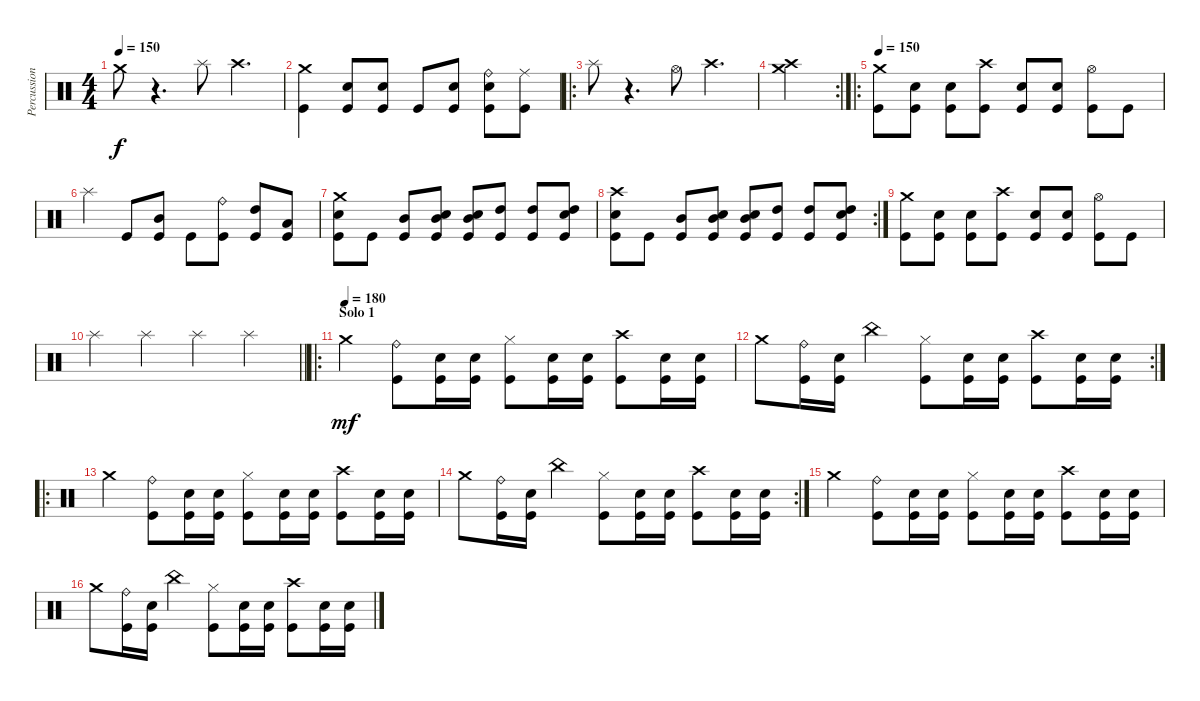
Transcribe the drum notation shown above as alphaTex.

\track ("Percussion" "Percussion") {instrument percussion}
\staff {score}
\articulation defaults
\ts (4 4)
\tempo 150
\clef neutral
\ks c "Crash medium (hit)".8{dy f}
r.4{d} "Splash (hit)".8 "Crash high (hit)".4{d} |
("Crash medium (hit)" "Kick (hit)").4 ("Electric Snare (hit)" "Kick (hit)").8 ("Electric Snare (hit)" "Kick (hit)").8 "Kick (hit)".8 ("Electric Snare (hit)" "Kick (hit)").8 ("Electric Snare (hit)" "Ride (bell)" "Kick (hit)").8 ("Ride (middle)" "Kick (hit)").8 |
\ro "Splash (hit)".8
r.4{d} "Hi-Hat (open)".8 "Crash high (hit)".4{d} |
\rc 2
("Crash high (hit)" "Crash medium (hit)").4 |
\ro
\tempo 150
("Crash medium (hit)" "Kick (hit)").8 ("Electric Snare (hit)" "Kick (hit)").8 ("Electric Snare (hit)" "Kick (hit)").8 ("Crash high (hit)" "Kick (hit)").8 ("Electric Snare (hit)" "Kick (hit)").8 ("Electric Snare (hit)" "Kick (hit)").8 ("Hi-Hat (open)" "Kick (hit)").8 "Kick (hit)".8 |
"Splash (hit)".4 "Kick (hit)".8 ("Mid Tom (hit)" "Kick (hit)").8 "Kick (hit)".8 ("Ride (bell)" "Kick (hit)").8 ("High Tom (hit)" "Kick (hit)").8 ("Low Tom (hit)" "Kick (hit)").8 |
("Crash medium (hit)" "Electric Snare (hit)" "Kick (hit)").8 "Kick (hit)".8 ("Mid Tom (hit)" "Kick (hit)").8 ("Mid Tom (hit)" "Electric Snare (hit)" "Kick (hit)").8 ("Mid Tom (hit)" "Electric Snare (hit)" "Kick (hit)").8 ("High Tom (hit)" "Kick (hit)").8 ("High Tom (hit)" "Kick (hit)").8 ("High Tom (hit)" "Electric Snare (hit)" "Kick (hit)").8 |
\rc 2
("Crash high (hit)" "Electric Snare (hit)" "Kick (hit)").8 "Kick (hit)".8 ("Mid Tom (hit)" "Kick (hit)").8 ("Mid Tom (hit)" "Electric Snare (hit)" "Kick (hit)").8 ("Mid Tom (hit)" "Electric Snare (hit)" "Kick (hit)").8 ("High Tom (hit)" "Kick (hit)").8 ("High Tom (hit)" "Kick (hit)").8 ("High Tom (hit)" "Electric Snare (hit)" "Kick (hit)").8 |
("Crash medium (hit)" "Kick (hit)").8 ("Electric Snare (hit)" "Kick (hit)").8 ("Electric Snare (hit)" "Kick (hit)").8 ("Crash high (hit)" "Kick (hit)").8 ("Electric Snare (hit)" "Kick (hit)").8 ("Electric Snare (hit)" "Kick (hit)").8 ("Hi-Hat (open)" "Kick (hit)").8 "Kick (hit)".8 |
\barLineRight lightlight "Splash (hit)".4 "Splash (hit)".4 "Splash (hit)".4 "Splash (hit)".4
|
\ro
\section ("" "Solo 1")
\tempo (180)
"Crash medium (hit)".4{dy mf} ("Ride (bell)" "Kick (hit)").8 ("Electric Snare (hit)" "Kick (hit)").16 ("Electric Snare (hit)" "Kick (hit)").16 ("Hi-Hat (closed)" "Kick (hit)").8 ("Electric Snare (hit)" "Kick (hit)").16 ("Electric Snare (hit)" "Kick (hit)").16 ("Crash high (hit)" "Kick (hit)").8 ("Electric Snare (hit)" "Kick (hit)").16 ("Electric Snare (hit)" "Kick (hit)").16 |
\rc 2 "Crash medium (hit)".8
("Ride (bell)" "Kick (hit)").16 ("Electric Snare (hit)" "Kick (hit)").16 "China (hit)".4 ("Hi-Hat (closed)" "Kick (hit)").8 ("Electric Snare (hit)" "Kick (hit)").16 ("Electric Snare (hit)" "Kick (hit)").16 ("Crash high (hit)" "Kick (hit)").8 ("Electric Snare (hit)" "Kick (hit)").16 ("Electric Snare (hit)" "Kick (hit)").16 |
\ro "Crash medium (hit)".4
("Ride (bell)" "Kick (hit)").8 ("Electric Snare (hit)" "Kick (hit)").16 ("Electric Snare (hit)" "Kick (hit)").16 ("Hi-Hat (closed)" "Kick (hit)").8 ("Electric Snare (hit)" "Kick (hit)").16 ("Electric Snare (hit)" "Kick (hit)").16 ("Crash high (hit)" "Kick (hit)").8 ("Electric Snare (hit)" "Kick (hit)").16 ("Electric Snare (hit)" "Kick (hit)").16 |
\rc 2 "Crash medium (hit)".8
("Ride (bell)" "Kick (hit)").16 ("Electric Snare (hit)" "Kick (hit)").16 "China (hit)".4 ("Hi-Hat (closed)" "Kick (hit)").8 ("Electric Snare (hit)" "Kick (hit)").16 ("Electric Snare (hit)" "Kick (hit)").16 ("Crash high (hit)" "Kick (hit)").8 ("Electric Snare (hit)" "Kick (hit)").16 ("Electric Snare (hit)" "Kick (hit)").16 |
"Crash medium (hit)".4 ("Ride (bell)" "Kick (hit)").8 ("Electric Snare (hit)" "Kick (hit)").16 ("Electric Snare (hit)" "Kick (hit)").16 ("Hi-Hat (closed)" "Kick (hit)").8 ("Electric Snare (hit)" "Kick (hit)").16 ("Electric Snare (hit)" "Kick (hit)").16 ("Crash high (hit)" "Kick (hit)").8 ("Electric Snare (hit)" "Kick (hit)").16 ("Electric Snare (hit)" "Kick (hit)").16 |
"Crash medium (hit)".8 ("Ride (bell)" "Kick (hit)").16 ("Electric Snare (hit)" "Kick (hit)").16 "China (hit)".4 ("Hi-Hat (closed)" "Kick (hit)").8 ("Electric Snare (hit)" "Kick (hit)").16 ("Electric Snare (hit)" "Kick (hit)").16 ("Crash high (hit)" "Kick (hit)").8 ("Electric Snare (hit)" "Kick (hit)").16 ("Electric Snare (hit)" "Kick (hit)").16
